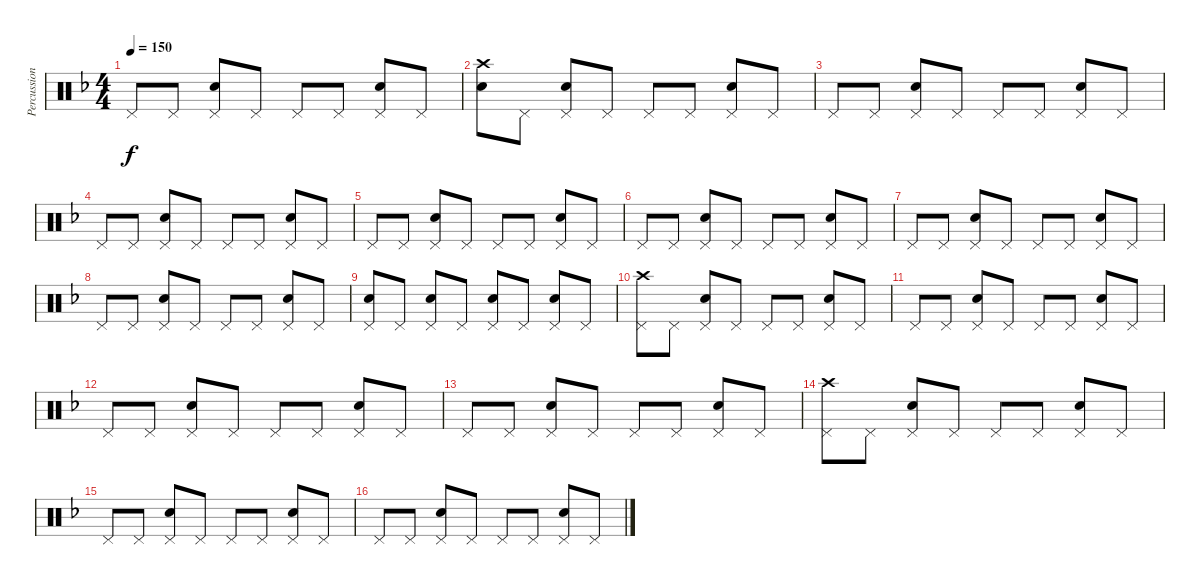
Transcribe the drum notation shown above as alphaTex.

\track ("Percussions" "Percussion") {instrument percussion}
\staff {score}
\articulation defaults
\ts (4 4)
\tempo 150
\clef neutral
\ks f "Pedal Hi-Hat (hit)".8{dy f} "Pedal Hi-Hat (hit)".8
("Pedal Hi-Hat (hit)" "Snare (hit) 2").8 "Pedal Hi-Hat (hit)".8 "Pedal Hi-Hat (hit)".8 "Pedal Hi-Hat (hit)".8 ("Pedal Hi-Hat (hit)" "Snare (hit) 2").8 "Pedal Hi-Hat (hit)".8 |
("Crash high (hit)" "Snare (hit) 2").8 "Pedal Hi-Hat (hit)".8 ("Pedal Hi-Hat (hit)" "Snare (hit) 2").8 "Pedal Hi-Hat (hit)".8 "Pedal Hi-Hat (hit)".8 "Pedal Hi-Hat (hit)".8 ("Pedal Hi-Hat (hit)" "Snare (hit) 2").8 "Pedal Hi-Hat (hit)".8 |
"Pedal Hi-Hat (hit)".8 "Pedal Hi-Hat (hit)".8 ("Pedal Hi-Hat (hit)" "Snare (hit) 2").8 "Pedal Hi-Hat (hit)".8 "Pedal Hi-Hat (hit)".8 "Pedal Hi-Hat (hit)".8 ("Pedal Hi-Hat (hit)" "Snare (hit) 2").8 "Pedal Hi-Hat (hit)".8 |
"Pedal Hi-Hat (hit)".8 "Pedal Hi-Hat (hit)".8 ("Pedal Hi-Hat (hit)" "Snare (hit) 2").8 "Pedal Hi-Hat (hit)".8 "Pedal Hi-Hat (hit)".8 "Pedal Hi-Hat (hit)".8 ("Pedal Hi-Hat (hit)" "Snare (hit) 2").8 "Pedal Hi-Hat (hit)".8 |
"Pedal Hi-Hat (hit)".8 "Pedal Hi-Hat (hit)".8 ("Pedal Hi-Hat (hit)" "Snare (hit) 2").8 "Pedal Hi-Hat (hit)".8 "Pedal Hi-Hat (hit)".8 "Pedal Hi-Hat (hit)".8 ("Pedal Hi-Hat (hit)" "Snare (hit) 2").8 "Pedal Hi-Hat (hit)".8 |
"Pedal Hi-Hat (hit)".8 "Pedal Hi-Hat (hit)".8 ("Pedal Hi-Hat (hit)" "Snare (hit) 2").8 "Pedal Hi-Hat (hit)".8 "Pedal Hi-Hat (hit)".8 "Pedal Hi-Hat (hit)".8 ("Pedal Hi-Hat (hit)" "Snare (hit) 2").8 "Pedal Hi-Hat (hit)".8 |
"Pedal Hi-Hat (hit)".8 "Pedal Hi-Hat (hit)".8 ("Pedal Hi-Hat (hit)" "Snare (hit) 2").8 "Pedal Hi-Hat (hit)".8 "Pedal Hi-Hat (hit)".8 "Pedal Hi-Hat (hit)".8 ("Pedal Hi-Hat (hit)" "Snare (hit) 2").8 "Pedal Hi-Hat (hit)".8 |
"Pedal Hi-Hat (hit)".8 "Pedal Hi-Hat (hit)".8 ("Pedal Hi-Hat (hit)" "Snare (hit) 2").8 "Pedal Hi-Hat (hit)".8 "Pedal Hi-Hat (hit)".8 "Pedal Hi-Hat (hit)".8 ("Pedal Hi-Hat (hit)" "Snare (hit) 2").8 "Pedal Hi-Hat (hit)".8 |
("Pedal Hi-Hat (hit)" "Snare (hit) 2").8 "Pedal Hi-Hat (hit)".8 ("Pedal Hi-Hat (hit)" "Snare (hit) 2").8 "Pedal Hi-Hat (hit)".8 ("Pedal Hi-Hat (hit)" "Snare (hit) 2").8 "Pedal Hi-Hat (hit)".8 ("Pedal Hi-Hat (hit)" "Snare (hit) 2").8 "Pedal Hi-Hat (hit)".8 |
("Crash high (hit)" "Pedal Hi-Hat (hit)").8 "Pedal Hi-Hat (hit)".8 ("Pedal Hi-Hat (hit)" "Snare (hit) 2").8 "Pedal Hi-Hat (hit)".8 "Pedal Hi-Hat (hit)".8 "Pedal Hi-Hat (hit)".8 ("Pedal Hi-Hat (hit)" "Snare (hit) 2").8 "Pedal Hi-Hat (hit)".8 |
"Pedal Hi-Hat (hit)".8 "Pedal Hi-Hat (hit)".8 ("Pedal Hi-Hat (hit)" "Snare (hit) 2").8 "Pedal Hi-Hat (hit)".8 "Pedal Hi-Hat (hit)".8 "Pedal Hi-Hat (hit)".8 ("Pedal Hi-Hat (hit)" "Snare (hit) 2").8 "Pedal Hi-Hat (hit)".8 |
"Pedal Hi-Hat (hit)".8 "Pedal Hi-Hat (hit)".8 ("Pedal Hi-Hat (hit)" "Snare (hit) 2").8 "Pedal Hi-Hat (hit)".8 "Pedal Hi-Hat (hit)".8 "Pedal Hi-Hat (hit)".8 ("Pedal Hi-Hat (hit)" "Snare (hit) 2").8 "Pedal Hi-Hat (hit)".8 |
"Pedal Hi-Hat (hit)".8 "Pedal Hi-Hat (hit)".8 ("Pedal Hi-Hat (hit)" "Snare (hit) 2").8 "Pedal Hi-Hat (hit)".8 "Pedal Hi-Hat (hit)".8 "Pedal Hi-Hat (hit)".8 ("Pedal Hi-Hat (hit)" "Snare (hit) 2").8 "Pedal Hi-Hat (hit)".8 |
("Crash high (hit)" "Pedal Hi-Hat (hit)").8 "Pedal Hi-Hat (hit)".8 ("Pedal Hi-Hat (hit)" "Snare (hit) 2").8 "Pedal Hi-Hat (hit)".8 "Pedal Hi-Hat (hit)".8 "Pedal Hi-Hat (hit)".8 ("Pedal Hi-Hat (hit)" "Snare (hit) 2").8 "Pedal Hi-Hat (hit)".8 |
"Pedal Hi-Hat (hit)".8 "Pedal Hi-Hat (hit)".8 ("Pedal Hi-Hat (hit)" "Snare (hit) 2").8 "Pedal Hi-Hat (hit)".8 "Pedal Hi-Hat (hit)".8 "Pedal Hi-Hat (hit)".8 ("Pedal Hi-Hat (hit)" "Snare (hit) 2").8 "Pedal Hi-Hat (hit)".8 |
"Pedal Hi-Hat (hit)".8 "Pedal Hi-Hat (hit)".8 ("Pedal Hi-Hat (hit)" "Snare (hit) 2").8 "Pedal Hi-Hat (hit)".8 "Pedal Hi-Hat (hit)".8 "Pedal Hi-Hat (hit)".8 ("Pedal Hi-Hat (hit)" "Snare (hit) 2").8 "Pedal Hi-Hat (hit)".8
